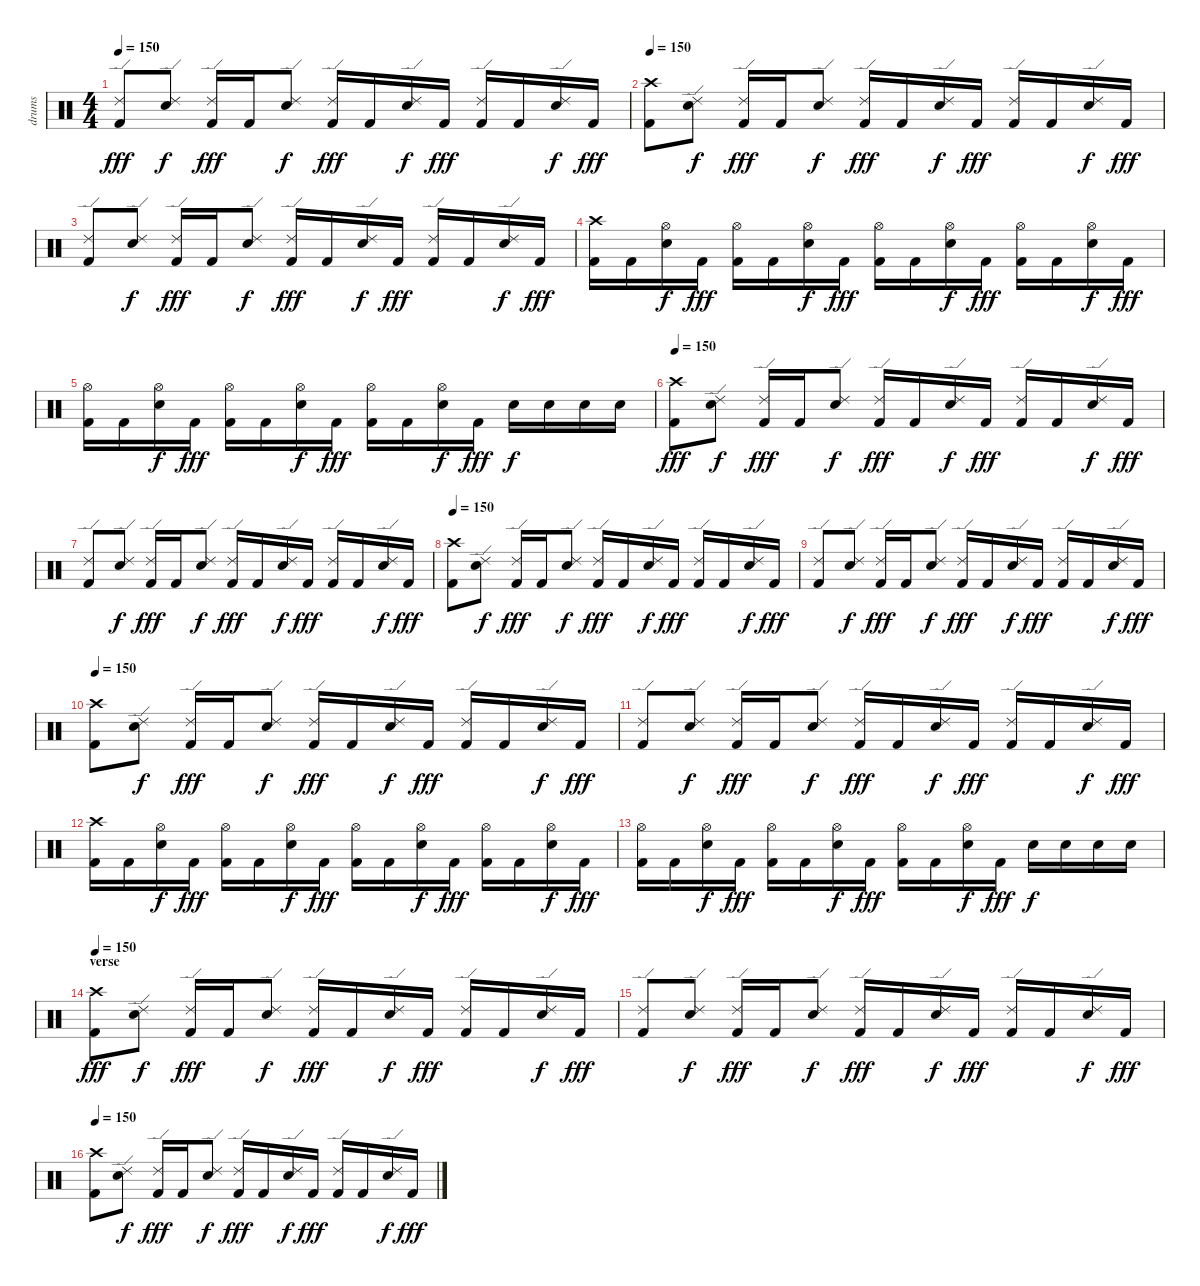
\track ("drums" "drums") {instrument percussion}
\staff {score}
\articulation defaults
\ts (4 4)
\tempo 150
\clef neutral
\ks c
("Ride (edge) 2" "Kick (hit) 2").8{dy fff} ("Ride (edge) 2" "Snare (hit) 2").8{dy f} ("Ride (edge) 2" "Kick (hit) 2").16{dy fff} "Kick (hit) 2".16 ("Ride (edge) 2" "Snare (hit) 2").8{dy f} ("Ride (edge) 2" "Kick (hit) 2").16{dy fff} "Kick (hit) 2".16 ("Ride (edge) 2" "Snare (hit) 2").16{dy f} "Kick (hit) 2".16{dy fff} ("Ride (edge) 2" "Kick (hit) 2").16 "Kick (hit) 2".16 ("Ride (edge) 2" "Snare (hit) 2").16{dy f} "Kick (hit) 2".16{dy fff} |
\tempo 150
("Crash high (hit)" "Kick (hit) 2").8 ("Ride (edge) 2" "Snare (hit) 2").8{dy f} ("Ride (edge) 2" "Kick (hit) 2").16{dy fff} "Kick (hit) 2".16 ("Ride (edge) 2" "Snare (hit) 2").8{dy f} ("Ride (edge) 2" "Kick (hit) 2").16{dy fff} "Kick (hit) 2".16 ("Ride (edge) 2" "Snare (hit) 2").16{dy f} "Kick (hit) 2".16{dy fff} ("Ride (edge) 2" "Kick (hit) 2").16 "Kick (hit) 2".16 ("Ride (edge) 2" "Snare (hit) 2").16{dy f} "Kick (hit) 2".16{dy fff} |
("Ride (edge) 2" "Kick (hit) 2").8 ("Ride (edge) 2" "Snare (hit) 2").8{dy f} ("Ride (edge) 2" "Kick (hit) 2").16{dy fff} "Kick (hit) 2".16 ("Ride (edge) 2" "Snare (hit) 2").8{dy f} ("Ride (edge) 2" "Kick (hit) 2").16{dy fff} "Kick (hit) 2".16 ("Ride (edge) 2" "Snare (hit) 2").16{dy f} "Kick (hit) 2".16{dy fff} ("Ride (edge) 2" "Kick (hit) 2").16 "Kick (hit) 2".16 ("Ride (edge) 2" "Snare (hit) 2").16{dy f} "Kick (hit) 2".16{dy fff} |
("Crash high (hit)" "Kick (hit) 2").16 "Kick (hit) 2".16 ("Hi-Hat (open)" "Snare (hit) 2").16{dy f} "Kick (hit) 2".16{dy fff} ("Hi-Hat (open)" "Kick (hit) 2").16 "Kick (hit) 2".16 ("Hi-Hat (open)" "Snare (hit) 2").16{dy f} "Kick (hit) 2".16{dy fff} ("Hi-Hat (open)" "Kick (hit) 2").16 "Kick (hit) 2".16 ("Hi-Hat (open)" "Snare (hit) 2").16{dy f} "Kick (hit) 2".16{dy fff} ("Hi-Hat (open)" "Kick (hit) 2").16 "Kick (hit) 2".16 ("Hi-Hat (open)" "Snare (hit) 2").16{dy f} "Kick (hit) 2".16{dy fff} |
("Hi-Hat (open)" "Kick (hit) 2").16 "Kick (hit) 2".16 ("Hi-Hat (open)" "Snare (hit) 2").16{dy f} "Kick (hit) 2".16{dy fff} ("Hi-Hat (open)" "Kick (hit) 2").16 "Kick (hit) 2".16 ("Hi-Hat (open)" "Snare (hit) 2").16{dy f} "Kick (hit) 2".16{dy fff} ("Hi-Hat (open)" "Kick (hit) 2").16 "Kick (hit) 2".16 ("Hi-Hat (open)" "Snare (hit) 2").16{dy f} "Kick (hit) 2".16{dy fff} "Snare (hit) 2".16{dy f} "Snare (hit) 2".16 "Snare (hit) 2".16 "Snare (hit) 2".16 |
\tempo 150
("Crash high (hit)" "Kick (hit) 2").8{dy fff} ("Ride (edge) 2" "Snare (hit) 2").8{dy f} ("Ride (edge) 2" "Kick (hit) 2").16{dy fff} "Kick (hit) 2".16 ("Ride (edge) 2" "Snare (hit) 2").8{dy f} ("Ride (edge) 2" "Kick (hit) 2").16{dy fff} "Kick (hit) 2".16 ("Ride (edge) 2" "Snare (hit) 2").16{dy f} "Kick (hit) 2".16{dy fff} ("Ride (edge) 2" "Kick (hit) 2").16 "Kick (hit) 2".16 ("Ride (edge) 2" "Snare (hit) 2").16{dy f} "Kick (hit) 2".16{dy fff} |
("Ride (edge) 2" "Kick (hit) 2").8 ("Ride (edge) 2" "Snare (hit) 2").8{dy f} ("Ride (edge) 2" "Kick (hit) 2").16{dy fff} "Kick (hit) 2".16 ("Ride (edge) 2" "Snare (hit) 2").8{dy f} ("Ride (edge) 2" "Kick (hit) 2").16{dy fff} "Kick (hit) 2".16 ("Ride (edge) 2" "Snare (hit) 2").16{dy f} "Kick (hit) 2".16{dy fff} ("Ride (edge) 2" "Kick (hit) 2").16 "Kick (hit) 2".16 ("Ride (edge) 2" "Snare (hit) 2").16{dy f} "Kick (hit) 2".16{dy fff} |
\tempo 150
("Crash high (hit)" "Kick (hit) 2").8 ("Ride (edge) 2" "Snare (hit) 2").8{dy f} ("Ride (edge) 2" "Kick (hit) 2").16{dy fff} "Kick (hit) 2".16 ("Ride (edge) 2" "Snare (hit) 2").8{dy f} ("Ride (edge) 2" "Kick (hit) 2").16{dy fff} "Kick (hit) 2".16 ("Ride (edge) 2" "Snare (hit) 2").16{dy f} "Kick (hit) 2".16{dy fff} ("Ride (edge) 2" "Kick (hit) 2").16 "Kick (hit) 2".16 ("Ride (edge) 2" "Snare (hit) 2").16{dy f} "Kick (hit) 2".16{dy fff} |
("Ride (edge) 2" "Kick (hit) 2").8 ("Ride (edge) 2" "Snare (hit) 2").8{dy f} ("Ride (edge) 2" "Kick (hit) 2").16{dy fff} "Kick (hit) 2".16 ("Ride (edge) 2" "Snare (hit) 2").8{dy f} ("Ride (edge) 2" "Kick (hit) 2").16{dy fff} "Kick (hit) 2".16 ("Ride (edge) 2" "Snare (hit) 2").16{dy f} "Kick (hit) 2".16{dy fff} ("Ride (edge) 2" "Kick (hit) 2").16 "Kick (hit) 2".16 ("Ride (edge) 2" "Snare (hit) 2").16{dy f} "Kick (hit) 2".16{dy fff} |
\tempo 150
("Crash high (hit)" "Kick (hit) 2").8 ("Ride (edge) 2" "Snare (hit) 2").8{dy f} ("Ride (edge) 2" "Kick (hit) 2").16{dy fff} "Kick (hit) 2".16 ("Ride (edge) 2" "Snare (hit) 2").8{dy f} ("Ride (edge) 2" "Kick (hit) 2").16{dy fff} "Kick (hit) 2".16 ("Ride (edge) 2" "Snare (hit) 2").16{dy f} "Kick (hit) 2".16{dy fff} ("Ride (edge) 2" "Kick (hit) 2").16 "Kick (hit) 2".16 ("Ride (edge) 2" "Snare (hit) 2").16{dy f} "Kick (hit) 2".16{dy fff} |
("Ride (edge) 2" "Kick (hit) 2").8 ("Ride (edge) 2" "Snare (hit) 2").8{dy f} ("Ride (edge) 2" "Kick (hit) 2").16{dy fff} "Kick (hit) 2".16 ("Ride (edge) 2" "Snare (hit) 2").8{dy f} ("Ride (edge) 2" "Kick (hit) 2").16{dy fff} "Kick (hit) 2".16 ("Ride (edge) 2" "Snare (hit) 2").16{dy f} "Kick (hit) 2".16{dy fff} ("Ride (edge) 2" "Kick (hit) 2").16 "Kick (hit) 2".16 ("Ride (edge) 2" "Snare (hit) 2").16{dy f} "Kick (hit) 2".16{dy fff} |
("Crash high (hit)" "Kick (hit) 2").16 "Kick (hit) 2".16 ("Hi-Hat (open)" "Snare (hit) 2").16{dy f} "Kick (hit) 2".16{dy fff} ("Hi-Hat (open)" "Kick (hit) 2").16 "Kick (hit) 2".16 ("Hi-Hat (open)" "Snare (hit) 2").16{dy f} "Kick (hit) 2".16{dy fff} ("Hi-Hat (open)" "Kick (hit) 2").16 "Kick (hit) 2".16 ("Hi-Hat (open)" "Snare (hit) 2").16{dy f} "Kick (hit) 2".16{dy fff} ("Hi-Hat (open)" "Kick (hit) 2").16 "Kick (hit) 2".16 ("Hi-Hat (open)" "Snare (hit) 2").16{dy f} "Kick (hit) 2".16{dy fff} |
("Hi-Hat (open)" "Kick (hit) 2").16 "Kick (hit) 2".16 ("Hi-Hat (open)" "Snare (hit) 2").16{dy f} "Kick (hit) 2".16{dy fff} ("Hi-Hat (open)" "Kick (hit) 2").16 "Kick (hit) 2".16 ("Hi-Hat (open)" "Snare (hit) 2").16{dy f} "Kick (hit) 2".16{dy fff} ("Hi-Hat (open)" "Kick (hit) 2").16 "Kick (hit) 2".16 ("Hi-Hat (open)" "Snare (hit) 2").16{dy f} "Kick (hit) 2".16{dy fff} "Snare (hit) 2".16{dy f} "Snare (hit) 2".16 "Snare (hit) 2".16 "Snare (hit) 2".16 |
\section ("" "verse")
\tempo 150
("Crash high (hit)" "Kick (hit) 2").8{dy fff} ("Ride (edge) 2" "Snare (hit) 2").8{dy f} ("Ride (edge) 2" "Kick (hit) 2").16{dy fff} "Kick (hit) 2".16 ("Ride (edge) 2" "Snare (hit) 2").8{dy f} ("Ride (edge) 2" "Kick (hit) 2").16{dy fff} "Kick (hit) 2".16 ("Ride (edge) 2" "Snare (hit) 2").16{dy f} "Kick (hit) 2".16{dy fff} ("Ride (edge) 2" "Kick (hit) 2").16 "Kick (hit) 2".16 ("Ride (edge) 2" "Snare (hit) 2").16{dy f} "Kick (hit) 2".16{dy fff} |
("Ride (edge) 2" "Kick (hit) 2").8 ("Ride (edge) 2" "Snare (hit) 2").8{dy f} ("Ride (edge) 2" "Kick (hit) 2").16{dy fff} "Kick (hit) 2".16 ("Ride (edge) 2" "Snare (hit) 2").8{dy f} ("Ride (edge) 2" "Kick (hit) 2").16{dy fff} "Kick (hit) 2".16 ("Ride (edge) 2" "Snare (hit) 2").16{dy f} "Kick (hit) 2".16{dy fff} ("Ride (edge) 2" "Kick (hit) 2").16 "Kick (hit) 2".16 ("Ride (edge) 2" "Snare (hit) 2").16{dy f} "Kick (hit) 2".16{dy fff} |
\tempo 150
("Crash high (hit)" "Kick (hit) 2").8 ("Ride (edge) 2" "Snare (hit) 2").8{dy f} ("Ride (edge) 2" "Kick (hit) 2").16{dy fff} "Kick (hit) 2".16 ("Ride (edge) 2" "Snare (hit) 2").8{dy f} ("Ride (edge) 2" "Kick (hit) 2").16{dy fff} "Kick (hit) 2".16 ("Ride (edge) 2" "Snare (hit) 2").16{dy f} "Kick (hit) 2".16{dy fff} ("Ride (edge) 2" "Kick (hit) 2").16 "Kick (hit) 2".16 ("Ride (edge) 2" "Snare (hit) 2").16{dy f} "Kick (hit) 2".16{dy fff}
